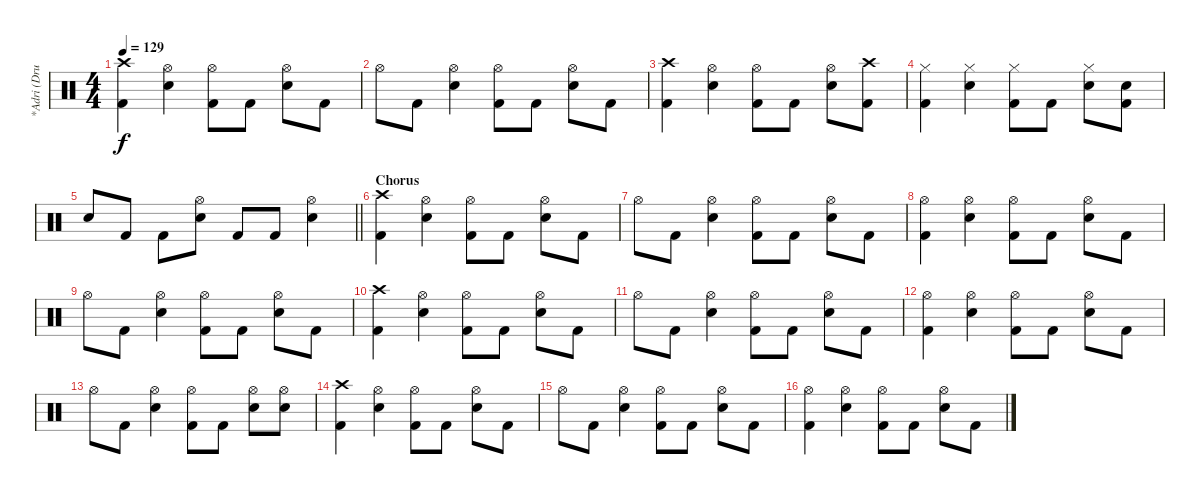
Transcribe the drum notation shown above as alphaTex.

\track ("*Adri (Drum)" "*Adri (Dru") {instrument percussion}
\staff {score}
\articulation defaults
\ts (4 4)
\tempo 129
\clef neutral
\ks c
("Crash high (hit)" "Kick (hit) 2").4{dy f} ("Hi-Hat (open)" "Snare (hit) 2").4 ("Hi-Hat (open)" "Kick (hit) 2").8 "Kick (hit) 2".8 ("Hi-Hat (open)" "Snare (hit) 2").8 "Kick (hit) 2".8 |
"Hi-Hat (open)".8 "Kick (hit) 2".8 ("Hi-Hat (open)" "Snare (hit) 2").4 ("Hi-Hat (open)" "Kick (hit) 2").8 "Kick (hit) 2".8 ("Hi-Hat (open)" "Snare (hit) 2").8 "Kick (hit) 2".8 |
("Crash high (hit)" "Kick (hit) 2").4 ("Hi-Hat (open)" "Snare (hit) 2").4 ("Hi-Hat (open)" "Kick (hit) 2").8 "Kick (hit) 2".8 ("Hi-Hat (open)" "Snare (hit) 2").8 ("Crash high (hit)" "Kick (hit) 2").8 |
("Hi-Hat (closed)" "Kick (hit) 2").4 ("Hi-Hat (closed)" "Snare (hit) 2").4 ("Hi-Hat (closed)" "Kick (hit) 2").8 "Kick (hit) 2".8 ("Hi-Hat (closed)" "Snare (hit) 2").8 ("Snare (hit) 2" "Kick (hit) 2").8 |
\barLineRight lightlight "Snare (hit) 2".8 "Kick (hit) 2".8 "Kick (hit) 2".8
("Hi-Hat (open)" "Snare (hit) 2").8 "Kick (hit) 2".8 "Kick (hit) 2".8 ("Hi-Hat (open)" "Snare (hit) 2").4 |
\section ("" "Chorus")
("Crash high (hit)" "Kick (hit) 2").4 ("Hi-Hat (open)" "Snare (hit) 2").4 ("Hi-Hat (open)" "Kick (hit) 2").8 "Kick (hit) 2".8 ("Hi-Hat (open)" "Snare (hit) 2").8 "Kick (hit) 2".8 |
"Hi-Hat (open)".8 "Kick (hit) 2".8 ("Hi-Hat (open)" "Snare (hit) 2").4 ("Hi-Hat (open)" "Kick (hit) 2").8 "Kick (hit) 2".8 ("Hi-Hat (open)" "Snare (hit) 2").8 "Kick (hit) 2".8 |
("Hi-Hat (open)" "Kick (hit) 2").4 ("Hi-Hat (open)" "Snare (hit) 2").4 ("Hi-Hat (open)" "Kick (hit) 2").8 "Kick (hit) 2".8 ("Hi-Hat (open)" "Snare (hit) 2").8 "Kick (hit) 2".8 |
"Hi-Hat (open)".8 "Kick (hit) 2".8 ("Hi-Hat (open)" "Snare (hit) 2").4 ("Hi-Hat (open)" "Kick (hit) 2").8 "Kick (hit) 2".8 ("Hi-Hat (open)" "Snare (hit) 2").8 "Kick (hit) 2".8 |
("Crash high (hit)" "Kick (hit) 2").4 ("Hi-Hat (open)" "Snare (hit) 2").4 ("Hi-Hat (open)" "Kick (hit) 2").8 "Kick (hit) 2".8 ("Hi-Hat (open)" "Snare (hit) 2").8 "Kick (hit) 2".8 |
"Hi-Hat (open)".8 "Kick (hit) 2".8 ("Hi-Hat (open)" "Snare (hit) 2").4 ("Hi-Hat (open)" "Kick (hit) 2").8 "Kick (hit) 2".8 ("Hi-Hat (open)" "Snare (hit) 2").8 "Kick (hit) 2".8 |
("Hi-Hat (open)" "Kick (hit) 2").4 ("Hi-Hat (open)" "Snare (hit) 2").4 ("Hi-Hat (open)" "Kick (hit) 2").8 "Kick (hit) 2".8 ("Hi-Hat (open)" "Snare (hit) 2").8 "Kick (hit) 2".8 |
"Hi-Hat (open)".8 "Kick (hit) 2".8 ("Hi-Hat (open)" "Snare (hit) 2").4 ("Hi-Hat (open)" "Kick (hit) 2").8 "Kick (hit) 2".8 ("Hi-Hat (open)" "Snare (hit) 2").8 ("Hi-Hat (open)" "Snare (hit) 2").8 |
("Crash high (hit)" "Kick (hit) 2").4 ("Hi-Hat (open)" "Snare (hit) 2").4 ("Hi-Hat (open)" "Kick (hit) 2").8 "Kick (hit) 2".8 ("Hi-Hat (open)" "Snare (hit) 2").8 "Kick (hit) 2".8 |
"Hi-Hat (open)".8 "Kick (hit) 2".8 ("Hi-Hat (open)" "Snare (hit) 2").4 ("Hi-Hat (open)" "Kick (hit) 2").8 "Kick (hit) 2".8 ("Hi-Hat (open)" "Snare (hit) 2").8 "Kick (hit) 2".8 |
("Hi-Hat (open)" "Kick (hit) 2").4 ("Hi-Hat (open)" "Snare (hit) 2").4 ("Hi-Hat (open)" "Kick (hit) 2").8 "Kick (hit) 2".8 ("Hi-Hat (open)" "Snare (hit) 2").8 "Kick (hit) 2".8
